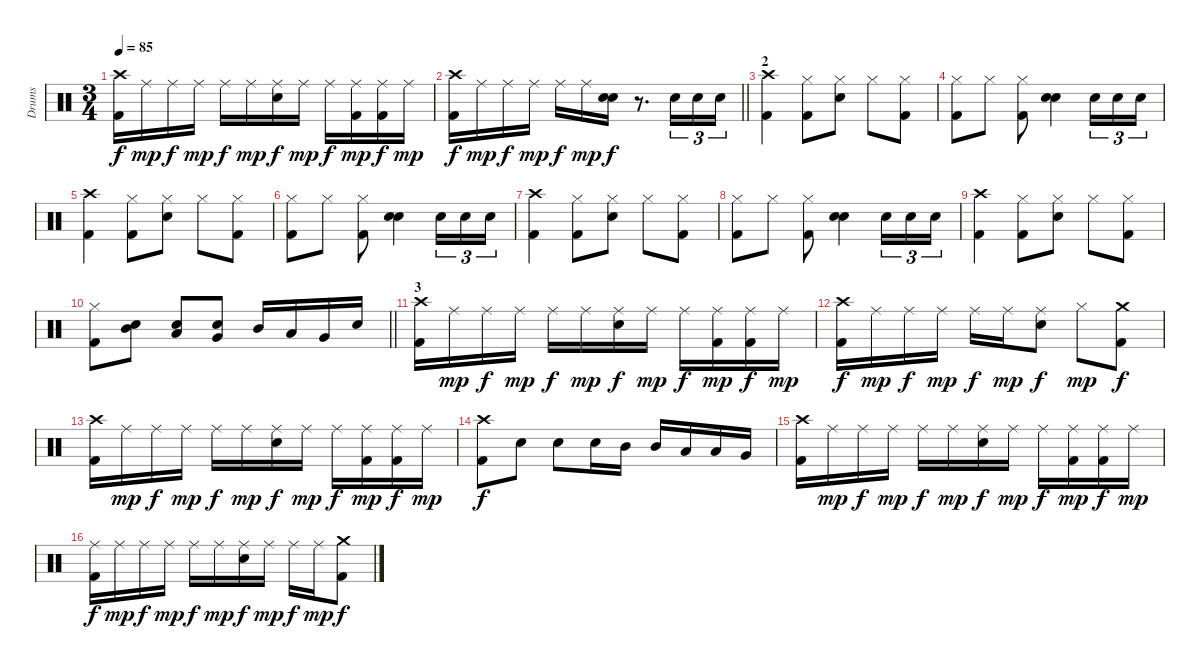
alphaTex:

\track ("Drums" "Drums") {instrument percussion}
\staff {score}
\articulation defaults
\ts (3 4)
\tempo 85
\clef neutral
\ks c
("Crash high (hit)" "Kick (hit) 2").16{dy f} "Ride (middle)".16{dy mp} "Ride (middle)".16{dy f} "Ride (middle)".16{dy mp} "Ride (middle)".16{dy f} "Ride (middle)".16{dy mp} ("Ride (middle)" "Electric Snare (hit)").16{dy f} "Ride (middle)".16{dy mp} "Ride (middle)".16{dy f} ("Ride (middle)" "Kick (hit) 2").16{dy mp} ("Ride (middle)" "Kick (hit) 2").16{dy f} "Ride (middle)".16{dy mp} |
\barLineRight lightlight
("Crash high (hit)" "Kick (hit) 2").16{dy f} "Ride (middle)".16{dy mp} "Ride (middle)".16{dy f} "Ride (middle)".16{dy mp} "Ride (middle)".16{dy f} "Ride (middle)".16{dy mp} ("Electric Snare (hit)" "Snare (hit) 2").16{dy f} r.8{d} "Electric Snare (hit)".16{tu (3 2)} "Electric Snare (hit)".16{tu (3 2)} "Electric Snare (hit)".16{tu (3 2)} |
\section ("" "2")
("Crash high (hit)" "Kick (hit) 2").4 ("Hi-Hat (closed)" "Kick (hit) 2").8 ("Hi-Hat (closed)" "Electric Snare (hit)").8 "Hi-Hat (closed)".8 ("Hi-Hat (closed)" "Kick (hit) 2").8 |
("Hi-Hat (closed)" "Kick (hit) 2").8 "Hi-Hat (closed)".8 ("Hi-Hat (closed)" "Kick (hit) 2").8 ("Electric Snare (hit)" "Snare (hit) 2").4 "Electric Snare (hit)".16{tu (3 2)} "Electric Snare (hit)".16{tu (3 2)} "Electric Snare (hit)".16{tu (3 2)} |
("Crash high (hit)" "Kick (hit) 2").4 ("Hi-Hat (closed)" "Kick (hit) 2").8 ("Hi-Hat (closed)" "Electric Snare (hit)").8 "Hi-Hat (closed)".8 ("Hi-Hat (closed)" "Kick (hit) 2").8 |
("Hi-Hat (closed)" "Kick (hit) 2").8 "Hi-Hat (closed)".8 ("Hi-Hat (closed)" "Kick (hit) 2").8 ("Electric Snare (hit)" "Snare (hit) 2").4 "Electric Snare (hit)".16{tu (3 2)} "Electric Snare (hit)".16{tu (3 2)} "Electric Snare (hit)".16{tu (3 2)} |
("Crash high (hit)" "Kick (hit) 2").4 ("Hi-Hat (closed)" "Kick (hit) 2").8 ("Hi-Hat (closed)" "Electric Snare (hit)").8 "Hi-Hat (closed)".8 ("Hi-Hat (closed)" "Kick (hit) 2").8 |
("Hi-Hat (closed)" "Kick (hit) 2").8 "Hi-Hat (closed)".8 ("Hi-Hat (closed)" "Kick (hit) 2").8 ("Electric Snare (hit)" "Snare (hit) 2").4 "Electric Snare (hit)".16{tu (3 2)} "Electric Snare (hit)".16{tu (3 2)} "Electric Snare (hit)".16{tu (3 2)} |
("Crash high (hit)" "Kick (hit) 2").4 ("Hi-Hat (closed)" "Kick (hit) 2").8 ("Hi-Hat (closed)" "Electric Snare (hit)").8 "Hi-Hat (closed)".8 ("Hi-Hat (closed)" "Kick (hit) 2").8 |
\barLineRight lightlight
("Hi-Hat (closed)" "Kick (hit) 2").8 ("Electric Snare (hit)" "Mid Tom (hit)").8 ("Electric Snare (hit)" "Low Tom (hit)").8 ("Electric Snare (hit)" "Very Low Tom (hit)").8 "Mid Tom (hit)".16 "Low Tom (hit)".16 "Very Low Tom (hit)".16 "Electric Snare (hit)".16 |
\section ("" "3")
("Crash high (hit)" "Kick (hit) 2").16 "Ride (middle)".16{dy mp} "Ride (middle)".16{dy f} "Ride (middle)".16{dy mp} "Ride (middle)".16{dy f} "Ride (middle)".16{dy mp} ("Ride (middle)" "Electric Snare (hit)").16{dy f} "Ride (middle)".16{dy mp} "Ride (middle)".16{dy f} ("Ride (middle)" "Kick (hit) 2").16{dy mp} ("Ride (middle)" "Kick (hit) 2").16{dy f} "Ride (middle)".16{dy mp} |
("Crash high (hit)" "Kick (hit) 2").16{dy f} "Ride (middle)".16{dy mp} "Ride (middle)".16{dy f} "Ride (middle)".16{dy mp} "Ride (middle)".16{dy f} "Ride (middle)".16{dy mp} ("Ride (middle)" "Electric Snare (hit)").8{dy f} "Hi-Hat (closed)".8{dy mp} ("Crash medium (hit)" "Kick (hit) 2").8{dy f} |
("Crash high (hit)" "Kick (hit) 2").16 "Ride (middle)".16{dy mp} "Ride (middle)".16{dy f} "Ride (middle)".16{dy mp} "Ride (middle)".16{dy f} "Ride (middle)".16{dy mp} ("Ride (middle)" "Electric Snare (hit)").16{dy f} "Ride (middle)".16{dy mp} "Ride (middle)".16{dy f} ("Ride (middle)" "Kick (hit) 2").16{dy mp} ("Ride (middle)" "Kick (hit) 2").16{dy f} "Ride (middle)".16{dy mp} |
("Crash high (hit)" "Kick (hit) 2").8{dy f} "Electric Snare (hit)".8 "Electric Snare (hit)".8 "Electric Snare (hit)".16 "Mid Tom (hit)".16 "Mid Tom (hit)".16 "Low Tom (hit)".16 "Low Tom (hit)".16 "Very Low Tom (hit)".16 |
("Crash high (hit)" "Kick (hit) 2").16 "Ride (middle)".16{dy mp} "Ride (middle)".16{dy f} "Ride (middle)".16{dy mp} "Ride (middle)".16{dy f} "Ride (middle)".16{dy mp} ("Ride (middle)" "Electric Snare (hit)").16{dy f} "Ride (middle)".16{dy mp} "Ride (middle)".16{dy f} ("Ride (middle)" "Kick (hit) 2").16{dy mp} ("Ride (middle)" "Kick (hit) 2").16{dy f} "Ride (middle)".16{dy mp} |
("Ride (middle)" "Kick (hit) 2").16{dy f} "Ride (middle)".16{dy mp} "Ride (middle)".16{dy f} "Ride (middle)".16{dy mp} "Ride (middle)".16{dy f} "Ride (middle)".16{dy mp} ("Ride (middle)" "Electric Snare (hit)").16{dy f} "Ride (middle)".16{dy mp} "Ride (middle)".16{dy f} "Ride (middle)".16{dy mp} ("Crash medium (hit)" "Kick (hit) 2").8{dy f}
